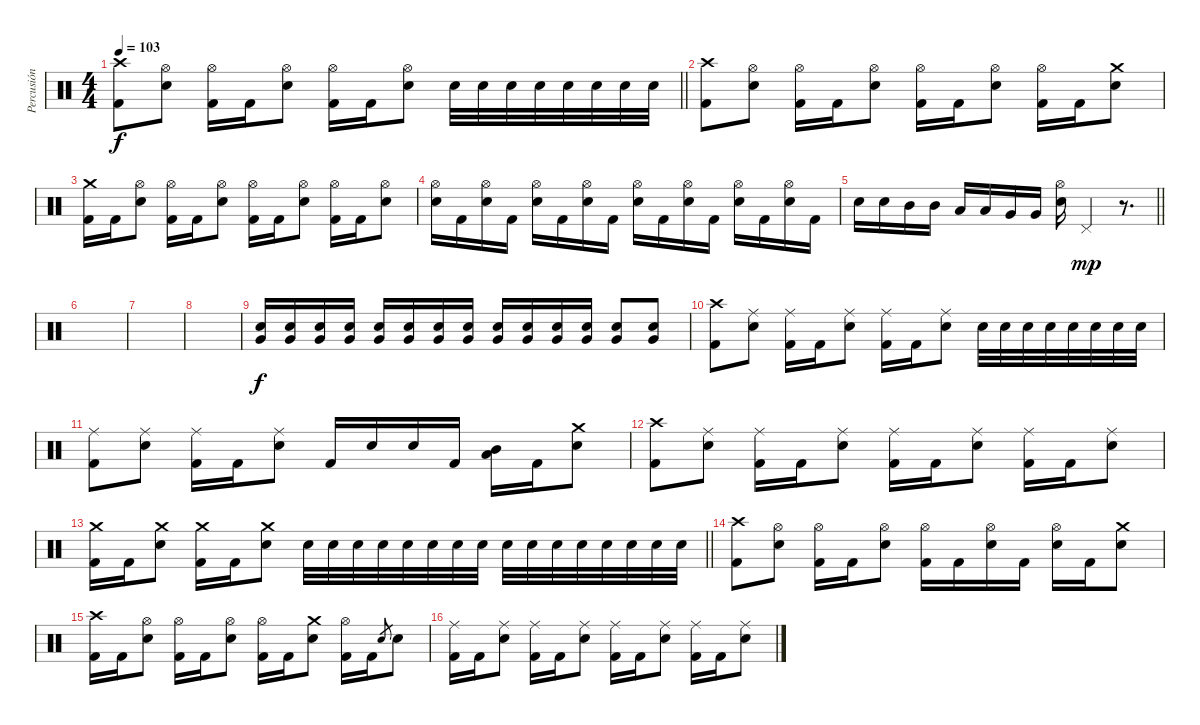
\track ("Percusión" "Percusión") {instrument percussion}
\staff {score}
\articulation defaults
\ts (4 4)
\tempo 103
\clef neutral
\barLineRight lightlight
\ks c
("Crash high (hit)" "Kick (hit) 2").8{dy f} ("Hi-Hat (open)" "Snare (hit) 2").8 ("Hi-Hat (open)" "Kick (hit) 2").16 "Kick (hit) 2".16 ("Hi-Hat (open)" "Snare (hit) 2").8 ("Hi-Hat (open)" "Kick (hit) 2").16 "Kick (hit) 2".16 ("Hi-Hat (open)" "Snare (hit) 2").8 "Snare (hit) 2".32 "Snare (hit) 2".32 "Snare (hit) 2".32 "Snare (hit) 2".32 "Snare (hit) 2".32 "Snare (hit) 2".32 "Snare (hit) 2".32 "Snare (hit) 2".32 |
("Crash high (hit)" "Kick (hit) 2").8 ("Hi-Hat (open)" "Snare (hit) 2").8 ("Hi-Hat (open)" "Kick (hit) 2").16 "Kick (hit) 2".16 ("Hi-Hat (open)" "Snare (hit) 2").8 ("Hi-Hat (open)" "Kick (hit) 2").16 "Kick (hit) 2".16 ("Hi-Hat (open)" "Snare (hit) 2").8 ("Hi-Hat (open)" "Kick (hit) 2").16 "Kick (hit) 2".16 ("Crash medium (hit)" "Snare (hit) 2").8 |
("Crash medium (hit)" "Kick (hit) 2").16 "Kick (hit) 2".16 ("Hi-Hat (open)" "Snare (hit) 2").8 ("Hi-Hat (open)" "Kick (hit) 2").16 "Kick (hit) 2".16 ("Hi-Hat (open)" "Snare (hit) 2").8 ("Hi-Hat (open)" "Kick (hit) 2").16 "Kick (hit) 2".16 ("Hi-Hat (open)" "Snare (hit) 2").8 ("Hi-Hat (open)" "Kick (hit) 2").16 "Kick (hit) 2".16 ("Hi-Hat (open)" "Snare (hit) 2").8 |
("Hi-Hat (open)" "Snare (hit) 2").16 "Kick (hit) 2".16 ("Hi-Hat (open)" "Snare (hit) 2").16 "Kick (hit) 2".16 ("Hi-Hat (open)" "Snare (hit) 2").16 "Kick (hit) 2".16 ("Hi-Hat (open)" "Snare (hit) 2").16 "Kick (hit) 2".16 ("Hi-Hat (open)" "Snare (hit) 2").16 "Kick (hit) 2".16 ("Hi-Hat (open)" "Snare (hit) 2").16 "Kick (hit) 2".16 ("Hi-Hat (open)" "Snare (hit) 2").16 "Kick (hit) 2".16 ("Hi-Hat (open)" "Snare (hit) 2").16 "Kick (hit) 2".16 |
\barLineRight lightlight "Snare (hit) 2".16 "Snare (hit) 2".16 "Mid Tom (hit)".16 "Mid Tom (hit)".16 "Low Tom (hit)".16 "Low Tom (hit)".16 "Very Low Tom (hit)".16 "Very Low Tom (hit)".16
("Hi-Hat (open)" "Snare (hit) 2").16 "Pedal Hi-Hat (hit)".4{dy mp} r.8{d} |
|
|
|
("Very Low Tom (hit)" "Snare (hit) 2").16{dy f} ("Very Low Tom (hit)" "Snare (hit) 2").16 ("Very Low Tom (hit)" "Snare (hit) 2").16 ("Very Low Tom (hit)" "Snare (hit) 2").16 ("Very Low Tom (hit)" "Snare (hit) 2").16 ("Very Low Tom (hit)" "Snare (hit) 2").16 ("Very Low Tom (hit)" "Snare (hit) 2").16 ("Very Low Tom (hit)" "Snare (hit) 2").16 ("Very Low Tom (hit)" "Snare (hit) 2").16 ("Very Low Tom (hit)" "Snare (hit) 2").16 ("Very Low Tom (hit)" "Snare (hit) 2").16 ("Very Low Tom (hit)" "Snare (hit) 2").16 ("Very Low Tom (hit)" "Snare (hit) 2").8 ("Very Low Tom (hit)" "Snare (hit) 2").8 |
("Crash high (hit)" "Kick (hit) 2").8 ("Ride (middle)" "Snare (hit) 2").8 ("Ride (middle)" "Kick (hit) 2").16 "Kick (hit) 2".16 ("Ride (middle)" "Snare (hit) 2").8 ("Ride (middle)" "Kick (hit) 2").16 "Kick (hit) 2".16 ("Ride (middle)" "Snare (hit) 2").8 "Snare (hit) 2".32 "Snare (hit) 2".32 "Snare (hit) 2".32 "Snare (hit) 2".32 "Snare (hit) 2".32 "Snare (hit) 2".32 "Snare (hit) 2".32 "Snare (hit) 2".32 |
("Ride (middle)" "Kick (hit) 2").8 ("Ride (middle)" "Snare (hit) 2").8 ("Ride (middle)" "Kick (hit) 2").16 "Kick (hit) 2".16 ("Ride (middle)" "Snare (hit) 2").8 "Kick (hit) 2".16 "Snare (hit) 2".16 "Snare (hit) 2".16 "Kick (hit) 2".16 ("Mid Tom (hit)" "Low Tom (hit)").16 "Kick (hit) 2".16 ("Crash medium (hit)" "Snare (hit) 2").8 |
("Crash high (hit)" "Kick (hit) 2").8 ("Ride (middle)" "Snare (hit) 2").8 ("Ride (middle)" "Kick (hit) 2").16 "Kick (hit) 2".16 ("Ride (middle)" "Snare (hit) 2").8 ("Ride (middle)" "Kick (hit) 2").16 "Kick (hit) 2".16 ("Ride (middle)" "Snare (hit) 2").8 ("Ride (middle)" "Kick (hit) 2").16 "Kick (hit) 2".16 ("Ride (middle)" "Snare (hit) 2").8 |
\barLineRight lightlight
("Crash medium (hit)" "Kick (hit) 2").16 "Kick (hit) 2".16 ("Crash medium (hit)" "Snare (hit) 2").8 ("Crash medium (hit)" "Kick (hit) 2").16 "Kick (hit) 2".16 ("Crash medium (hit)" "Snare (hit) 2").8 "Snare (hit) 2".32 "Snare (hit) 2".32 "Snare (hit) 2".32 "Snare (hit) 2".32 "Snare (hit) 2".32 "Snare (hit) 2".32 "Snare (hit) 2".32 "Snare (hit) 2".32 "Snare (hit) 2".32 "Snare (hit) 2".32 "Snare (hit) 2".32 "Snare (hit) 2".32 "Snare (hit) 2".32 "Snare (hit) 2".32 "Snare (hit) 2".32 "Snare (hit) 2".32 |
("Crash high (hit)" "Kick (hit) 2").8 ("Hi-Hat (open)" "Snare (hit) 2").8 ("Hi-Hat (open)" "Kick (hit) 2").16 "Kick (hit) 2".16 ("Hi-Hat (open)" "Snare (hit) 2").8 ("Hi-Hat (open)" "Kick (hit) 2").16 "Kick (hit) 2".16 ("Hi-Hat (open)" "Snare (hit) 2").16 "Kick (hit) 2".16 ("Hi-Hat (open)" "Snare (hit) 2").16 "Kick (hit) 2".16 ("Crash medium (hit)" "Snare (hit) 2").8 |
("Crash high (hit)" "Kick (hit) 2").16 "Kick (hit) 2".16 ("Hi-Hat (open)" "Snare (hit) 2").8 ("Hi-Hat (open)" "Kick (hit) 2").16 "Kick (hit) 2".16 ("Hi-Hat (open)" "Snare (hit) 2").8 ("Hi-Hat (open)" "Kick (hit) 2").16 "Kick (hit) 2".16 ("Crash medium (hit)" "Snare (hit) 2").8 ("Hi-Hat (open)" "Kick (hit) 2").16 "Kick (hit) 2".16 "Snare (hit) 2".8{gr} "Snare (hit) 2".8 |
("Ride (middle)" "Kick (hit) 2").16 "Kick (hit) 2".16 ("Ride (middle)" "Snare (hit) 2").8 ("Ride (middle)" "Kick (hit) 2").16 "Kick (hit) 2".16 ("Ride (middle)" "Snare (hit) 2").8 ("Ride (middle)" "Kick (hit) 2").16 "Kick (hit) 2".16 ("Ride (middle)" "Snare (hit) 2").8 ("Ride (middle)" "Kick (hit) 2").16 "Kick (hit) 2".16 ("Ride (middle)" "Snare (hit) 2").8
